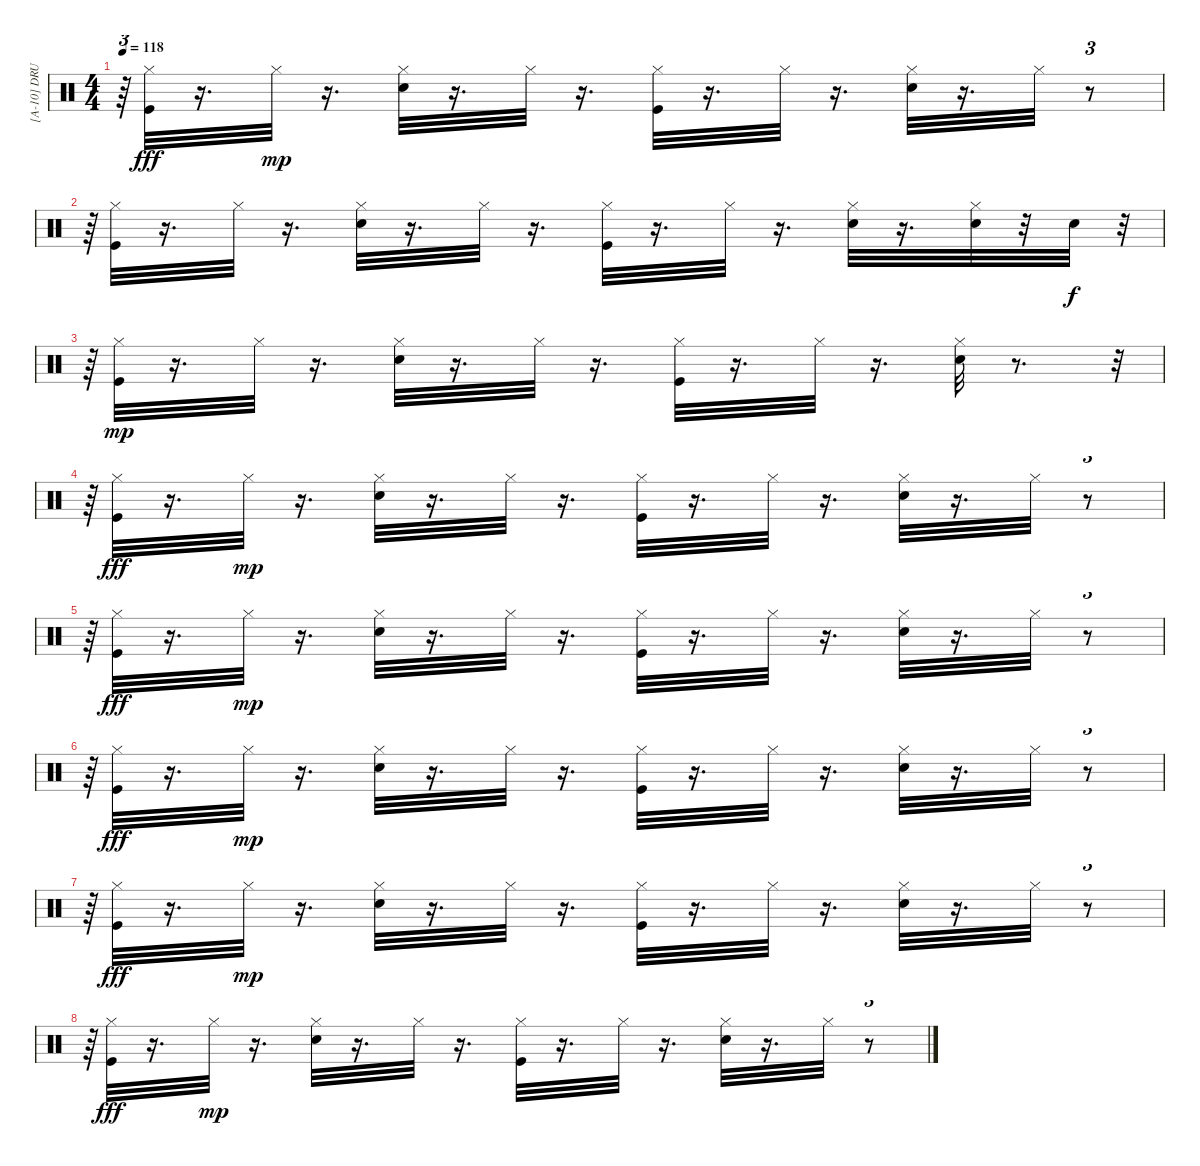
\track ("[A-10] DRUM" "[A-10] DRU") {instrument percussion}
\staff {score}
\articulation defaults
\ts (4 4)
\tempo 118
\clef neutral
\ks c
r.64{tu (3 2) dy mp} ("Hi-Hat (closed)" "Kick (hit)").32{dy fff} r.16{d} "Hi-Hat (closed)".32{dy mp} r.16{d} ("Snare (hit) 2" "Hi-Hat (closed)").32 r.16{d} "Hi-Hat (closed)".32 r.16{d} ("Kick (hit)" "Hi-Hat (closed)").32 r.16{d} "Hi-Hat (closed)".32 r.16{d} ("Snare (hit) 2" "Hi-Hat (closed)").32 r.16{d} "Hi-Hat (closed)".32 r.8{tu (3 2)} |
r.64{tu (3 2)} ("Hi-Hat (closed)" "Kick (hit)").32 r.16{d} "Hi-Hat (closed)".32 r.16{d} ("Snare (hit) 2" "Hi-Hat (closed)").32 r.16{d} "Hi-Hat (closed)".32 r.16{d} ("Kick (hit)" "Hi-Hat (closed)").32 r.16{d} "Hi-Hat (closed)".32 r.16{d} ("Snare (hit) 2" "Hi-Hat (closed)").32 r.16{d} ("Snare (hit) 2" "Hi-Hat (closed)").32 r.32 "Snare (hit) 2".32{dy f} r.32{tu (3 2)} |
r.64{tu (3 2)} ("Kick (hit)" "Hi-Hat (closed)").32{dy mp} r.16{d} "Hi-Hat (closed)".32 r.16{d} ("Snare (hit) 2" "Hi-Hat (closed)").32 r.16{d} "Hi-Hat (closed)".32 r.16{d} ("Kick (hit)" "Hi-Hat (closed)").32 r.16{d} "Hi-Hat (closed)".32 r.16{d} ("Snare (hit) 2" "Hi-Hat (closed)").32 r.8{d} r.32{tu (3 2)} |
r.64{tu (3 2)} ("Hi-Hat (closed)" "Kick (hit)").32{dy fff} r.16{d} "Hi-Hat (closed)".32{dy mp} r.16{d} ("Snare (hit) 2" "Hi-Hat (closed)").32 r.16{d} "Hi-Hat (closed)".32 r.16{d} ("Kick (hit)" "Hi-Hat (closed)").32 r.16{d} "Hi-Hat (closed)".32 r.16{d} ("Snare (hit) 2" "Hi-Hat (closed)").32 r.16{d} "Hi-Hat (closed)".32 r.8{tu (3 2)} |
r.64{tu (3 2)} ("Hi-Hat (closed)" "Kick (hit)").32{dy fff} r.16{d} "Hi-Hat (closed)".32{dy mp} r.16{d} ("Snare (hit) 2" "Hi-Hat (closed)").32 r.16{d} "Hi-Hat (closed)".32 r.16{d} ("Kick (hit)" "Hi-Hat (closed)").32 r.16{d} "Hi-Hat (closed)".32 r.16{d} ("Snare (hit) 2" "Hi-Hat (closed)").32 r.16{d} "Hi-Hat (closed)".32 r.8{tu (3 2)} |
r.64{tu (3 2)} ("Hi-Hat (closed)" "Kick (hit)").32{dy fff} r.16{d} "Hi-Hat (closed)".32{dy mp} r.16{d} ("Snare (hit) 2" "Hi-Hat (closed)").32 r.16{d} "Hi-Hat (closed)".32 r.16{d} ("Kick (hit)" "Hi-Hat (closed)").32 r.16{d} "Hi-Hat (closed)".32 r.16{d} ("Snare (hit) 2" "Hi-Hat (closed)").32 r.16{d} "Hi-Hat (closed)".32 r.8{tu (3 2)} |
r.64{tu (3 2)} ("Hi-Hat (closed)" "Kick (hit)").32{dy fff} r.16{d} "Hi-Hat (closed)".32{dy mp} r.16{d} ("Snare (hit) 2" "Hi-Hat (closed)").32 r.16{d} "Hi-Hat (closed)".32 r.16{d} ("Kick (hit)" "Hi-Hat (closed)").32 r.16{d} "Hi-Hat (closed)".32 r.16{d} ("Snare (hit) 2" "Hi-Hat (closed)").32 r.16{d} "Hi-Hat (closed)".32 r.8{tu (3 2)} |
r.64{tu (3 2)} ("Hi-Hat (closed)" "Kick (hit)").32{dy fff} r.16{d} "Hi-Hat (closed)".32{dy mp} r.16{d} ("Snare (hit) 2" "Hi-Hat (closed)").32 r.16{d} "Hi-Hat (closed)".32 r.16{d} ("Kick (hit)" "Hi-Hat (closed)").32 r.16{d} "Hi-Hat (closed)".32 r.16{d} ("Snare (hit) 2" "Hi-Hat (closed)").32 r.16{d} "Hi-Hat (closed)".32 r.8{tu (3 2)}
